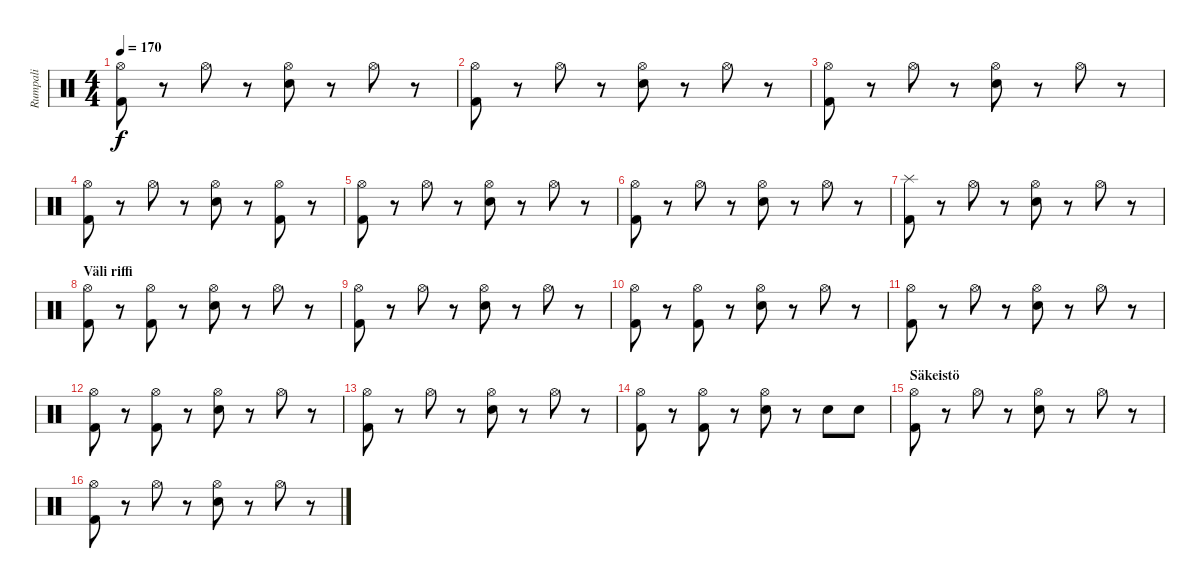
\track ("Rumpali" "Rumpali") {instrument percussion}
\staff {score}
\articulation defaults
\ts (4 4)
\tempo 170
\clef neutral
\ks c
("Hi-Hat (open)" "Kick (hit) 2").8{dy f} r.8 "Hi-Hat (open)".8 r.8 ("Hi-Hat (open)" "Electric Snare (hit)").8 r.8 "Hi-Hat (open)".8 r.8 |
("Hi-Hat (open)" "Kick (hit) 2").8 r.8 "Hi-Hat (open)".8 r.8 ("Hi-Hat (open)" "Electric Snare (hit)").8 r.8 "Hi-Hat (open)".8 r.8 |
("Hi-Hat (open)" "Kick (hit) 2").8 r.8 "Hi-Hat (open)".8 r.8 ("Hi-Hat (open)" "Electric Snare (hit)").8 r.8 "Hi-Hat (open)".8 r.8 |
("Hi-Hat (open)" "Kick (hit) 2").8 r.8 "Hi-Hat (open)".8 r.8 ("Hi-Hat (open)" "Electric Snare (hit)").8 r.8 ("Hi-Hat (open)" "Kick (hit) 2").8 r.8 |
("Hi-Hat (open)" "Kick (hit) 2").8 r.8 "Hi-Hat (open)".8 r.8 ("Hi-Hat (open)" "Electric Snare (hit)").8 r.8 "Hi-Hat (open)".8 r.8 |
("Hi-Hat (open)" "Kick (hit) 2").8 r.8 "Hi-Hat (open)".8 r.8 ("Hi-Hat (open)" "Electric Snare (hit)").8 r.8 "Hi-Hat (open)".8 r.8 |
("Splash (hit)" "Kick (hit) 2").8 r.8 "Hi-Hat (open)".8 r.8 ("Hi-Hat (open)" "Electric Snare (hit)").8 r.8 "Hi-Hat (open)".8 r.8 |
\section ("" "Väli riffi")
("Hi-Hat (open)" "Kick (hit) 2").8 r.8 ("Hi-Hat (open)" "Kick (hit) 2").8 r.8 ("Hi-Hat (open)" "Electric Snare (hit)").8 r.8 "Hi-Hat (open)".8 r.8 |
("Hi-Hat (open)" "Kick (hit) 2").8 r.8 "Hi-Hat (open)".8 r.8 ("Hi-Hat (open)" "Electric Snare (hit)").8 r.8 "Hi-Hat (open)".8 r.8 |
("Hi-Hat (open)" "Kick (hit) 2").8 r.8 ("Hi-Hat (open)" "Kick (hit) 2").8 r.8 ("Hi-Hat (open)" "Electric Snare (hit)").8 r.8 "Hi-Hat (open)".8 r.8 |
("Hi-Hat (open)" "Kick (hit) 2").8 r.8 "Hi-Hat (open)".8 r.8 ("Hi-Hat (open)" "Electric Snare (hit)").8 r.8 "Hi-Hat (open)".8 r.8 |
("Hi-Hat (open)" "Kick (hit) 2").8 r.8 ("Hi-Hat (open)" "Kick (hit) 2").8 r.8 ("Hi-Hat (open)" "Electric Snare (hit)").8 r.8 "Hi-Hat (open)".8 r.8 |
("Hi-Hat (open)" "Kick (hit) 2").8 r.8 "Hi-Hat (open)".8 r.8 ("Hi-Hat (open)" "Electric Snare (hit)").8 r.8 "Hi-Hat (open)".8 r.8 |
("Hi-Hat (open)" "Kick (hit) 2").8 r.8 ("Hi-Hat (open)" "Kick (hit) 2").8 r.8 ("Hi-Hat (open)" "Electric Snare (hit)").8 r.8 "Electric Snare (hit)".8 "Electric Snare (hit)".8 |
\section ("" "Säkeistö")
("Hi-Hat (open)" "Kick (hit) 2").8 r.8 "Hi-Hat (open)".8 r.8 ("Hi-Hat (open)" "Electric Snare (hit)").8 r.8 "Hi-Hat (open)".8 r.8 |
("Hi-Hat (open)" "Kick (hit) 2").8 r.8 "Hi-Hat (open)".8 r.8 ("Hi-Hat (open)" "Electric Snare (hit)").8 r.8 "Hi-Hat (open)".8 r.8
